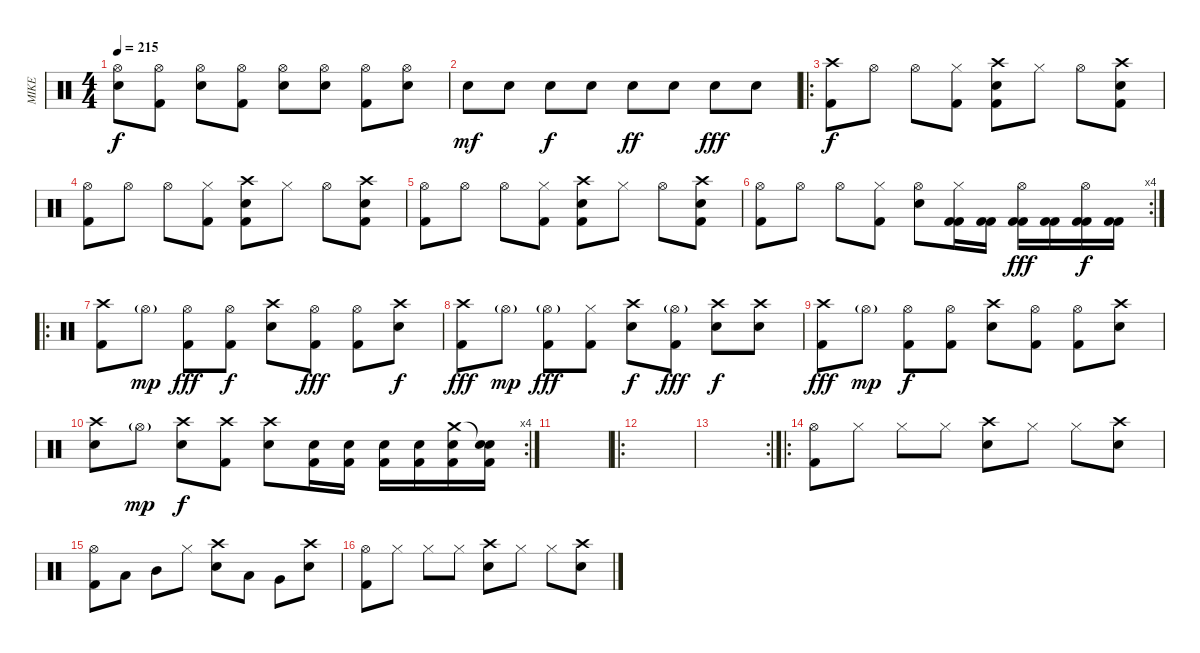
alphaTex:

\track ("MIKE" "MIKE") {instrument percussion}
\staff {score}
\articulation defaults
\ts (4 4)
\tempo 215
\clef neutral
\ks c
("Snare (hit) 2" "Hi-Hat (open)").8{dy f} ("Kick (hit) 2" "Hi-Hat (open)").8 ("Snare (hit) 2" "Hi-Hat (open)").8 ("Kick (hit) 2" "Hi-Hat (open)").8 ("Snare (hit) 2" "Hi-Hat (open)").8 ("Snare (hit) 2" "Hi-Hat (open)").8 ("Kick (hit) 2" "Hi-Hat (open)").8 ("Snare (hit) 2" "Hi-Hat (open)").8 |
"Electric Snare (hit)".8{dy mf} "Electric Snare (hit)".8 "Electric Snare (hit)".8{dy f} "Electric Snare (hit)".8 "Electric Snare (hit)".8{dy ff} "Electric Snare (hit)".8 "Electric Snare (hit)".8{dy fff} "Electric Snare (hit)".8 |
\ro
("Crash high (hit)" "Kick (hit) 2").8{dy f} "Hi-Hat (open)".8 "Hi-Hat (open)".8 ("Hi-Hat (closed)" "Kick (hit) 2").8 ("Kick (hit) 2" "Crash high (hit)" "Electric Snare (hit)").8 "Hi-Hat (closed)".8 "Hi-Hat (open)".8 ("Kick (hit) 2" "Crash high (hit)" "Electric Snare (hit)").8 |
("Hi-Hat (open)" "Kick (hit) 2").8 "Hi-Hat (open)".8 "Hi-Hat (open)".8 ("Hi-Hat (closed)" "Kick (hit) 2").8 ("Kick (hit) 2" "Crash high (hit)" "Electric Snare (hit)").8 "Hi-Hat (closed)".8 "Hi-Hat (open)".8 ("Kick (hit) 2" "Crash high (hit)" "Electric Snare (hit)").8 |
("Hi-Hat (open)" "Kick (hit) 2").8 "Hi-Hat (open)".8 "Hi-Hat (open)".8 ("Hi-Hat (closed)" "Kick (hit) 2").8 ("Kick (hit) 2" "Crash high (hit)" "Electric Snare (hit)").8 "Hi-Hat (closed)".8 "Hi-Hat (open)".8 ("Kick (hit) 2" "Crash high (hit)" "Electric Snare (hit)").8 |
\rc 4
("Hi-Hat (open)" "Kick (hit) 2").8 "Hi-Hat (open)".8 "Hi-Hat (open)".8 ("Hi-Hat (closed)" "Kick (hit) 2").8 ("Hi-Hat (open)" "Electric Snare (hit)").8 ("Kick (hit) 2" "Hi-Hat (closed)" "Kick (hit) 2").16 ("Kick (hit) 2" "Kick (hit) 2").16 ("Kick (hit) 2" "Hi-Hat (open)" "Kick (hit) 2").16{dy fff} ("Kick (hit) 2" "Kick (hit) 2").16 ("Kick (hit) 2" "Hi-Hat (open)" "Kick (hit) 2").16{dy f} ("Kick (hit) 2" "Kick (hit) 2").16 |
\ro
("Crash high (hit)" "Kick (hit) 2").8 "Hi-Hat (open)"{g}.8{dy mp} ("Hi-Hat (open)" "Kick (hit) 2").8{dy fff} ("Hi-Hat (open)" "Kick (hit) 2").8{dy f} ("Crash high (hit)" "Electric Snare (hit)").8 ("Hi-Hat (open)" "Kick (hit) 2").8{dy fff} ("Hi-Hat (open)" "Kick (hit) 2").8 ("Crash high (hit)" "Electric Snare (hit)").8{dy f} |
("Crash high (hit)" "Kick (hit) 2").8{dy fff} "Hi-Hat (open)"{g}.8{dy mp} ("Hi-Hat (open)"{g} "Kick (hit) 2").8{dy fff} ("Hi-Hat (closed)" "Kick (hit) 2").8 ("Crash high (hit)" "Electric Snare (hit)").8{dy f} ("Hi-Hat (open)"{g} "Kick (hit) 2").8{dy fff} ("Crash high (hit)" "Electric Snare (hit)").8{dy f} ("Crash high (hit)" "Electric Snare (hit)").8 |
("Crash high (hit)" "Kick (hit) 2").8{dy fff} "Hi-Hat (open)"{g}.8{dy mp} ("Hi-Hat (open)" "Kick (hit) 2").8{dy f} ("Hi-Hat (open)" "Kick (hit) 2").8 ("Crash high (hit)" "Electric Snare (hit)").8 ("Hi-Hat (open)" "Kick (hit) 2").8 ("Hi-Hat (open)" "Kick (hit) 2").8 ("Crash high (hit)" "Electric Snare (hit)").8 |
\rc 4
("Crash high (hit)" "Electric Snare (hit)").8 "Hi-Hat (open)"{g}.8{dy mp} ("Crash high (hit)" "Electric Snare (hit)").8{dy f} ("Crash high (hit)" "Kick (hit) 2").8 ("Crash high (hit)" "Electric Snare (hit)").8 ("Electric Snare (hit)" "Kick (hit) 2").16 ("Electric Snare (hit)" "Kick (hit) 2").16 ("Electric Snare (hit)" "Kick (hit) 2").16 ("Electric Snare (hit)" "Kick (hit) 2").16 ("Crash medium (hit)" "Electric Snare (hit)" "Kick (hit) 2").16 ("Snare (hit)"{t} "Electric Snare (hit)" "Kick (hit) 2").16 |
|
\ro
|
\rc 2
|
\ro
("Hi-Hat (open)" "Kick (hit) 2").8 "Hi-Hat (closed)".8 "Hi-Hat (closed)".8 "Hi-Hat (closed)".8 ("Crash high (hit)" "Electric Snare (hit)").8 "Hi-Hat (closed)".8 "Hi-Hat (closed)".8 ("Crash high (hit)" "Electric Snare (hit)").8 |
("Hi-Hat (open)" "Kick (hit) 2").8 "Low Tom (hit)".8 "Mid Tom (hit)".8 "Hi-Hat (closed)".8 ("Crash high (hit)" "Electric Snare (hit)").8 "Low Tom (hit)".8 "Very Low Tom (hit)".8 ("Crash high (hit)" "Electric Snare (hit)").8 |
("Hi-Hat (open)" "Kick (hit) 2").8 "Hi-Hat (closed)".8 "Hi-Hat (closed)".8 "Hi-Hat (closed)".8 ("Crash high (hit)" "Electric Snare (hit)").8 "Hi-Hat (closed)".8 "Hi-Hat (closed)".8 ("Crash high (hit)" "Electric Snare (hit)").8
